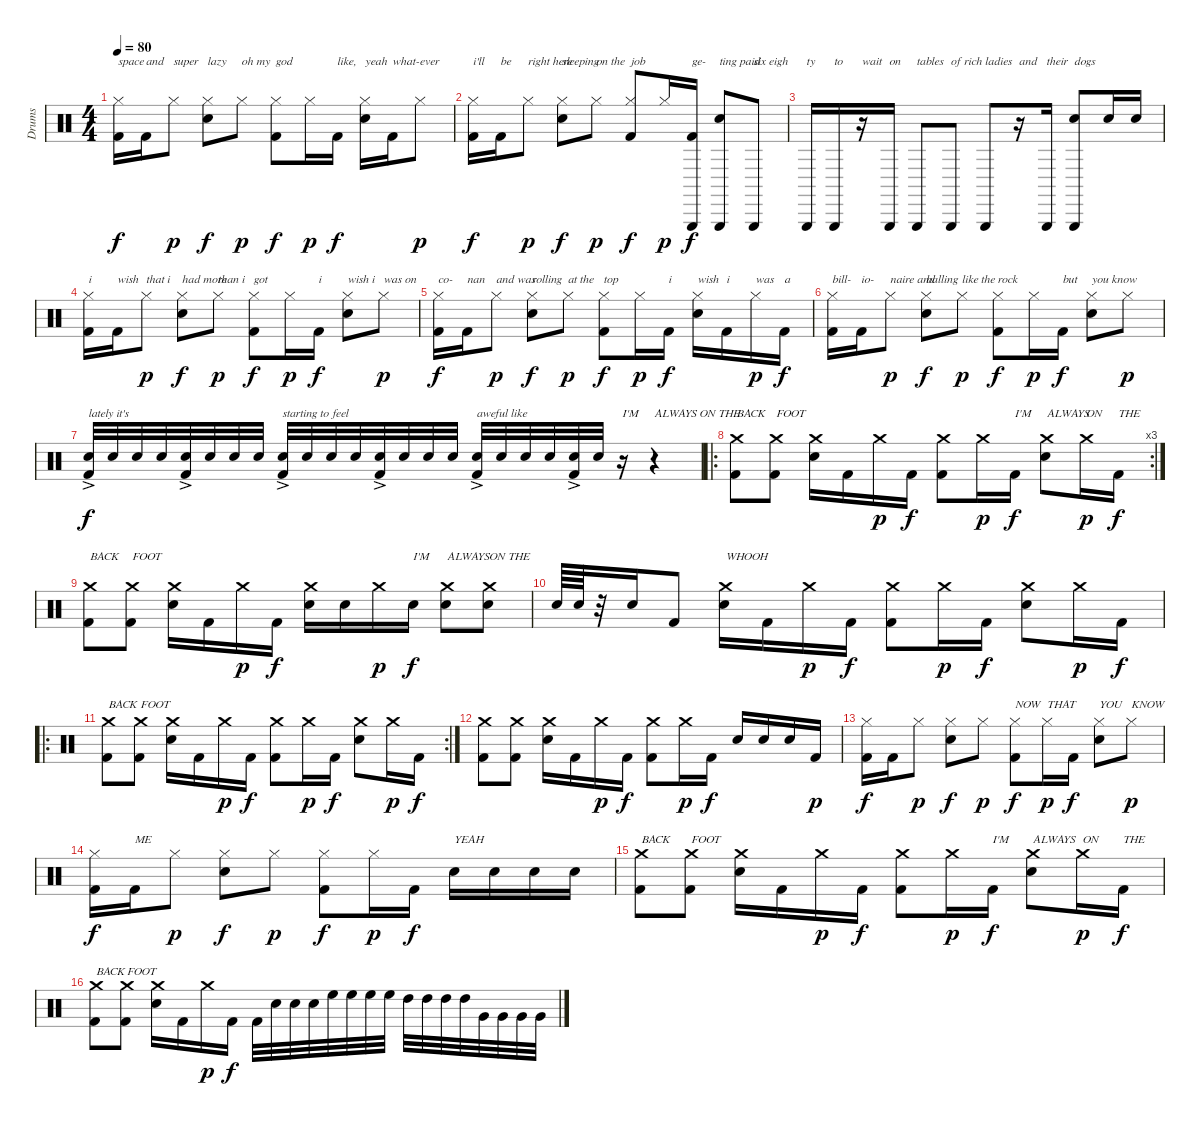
\track ("Drums" "Drums") {instrument percussion}
\staff {score}
\articulation defaults
\ts (4 4)
\tempo 80
\clef neutral
\ks c
("Hi-Hat (closed)" "Kick (hit) 2").16{txt "space" dy f} "Kick (hit) 2".16{txt "and"} "Hi-Hat (closed)".8{txt "super" dy p} ("Hi-Hat (closed)" "Snare (hit) 2").8{txt "lazy" dy f} "Hi-Hat (closed)".8{txt "oh my" dy p} ("Hi-Hat (closed)" "Kick (hit) 2").8{txt "god" dy f} "Hi-Hat (closed)".16{dy p} "Kick (hit) 2".16{txt "like," dy f} ("Hi-Hat (closed)" "Snare (hit) 2").16{txt "yeah"} "Kick (hit) 2".16{txt "what-"} "Hi-Hat (closed)".8{txt "ever" dy p} |
("Hi-Hat (closed)" "Kick (hit) 2").16{txt "i'll" dy f} "Kick (hit) 2".16{txt "be"} "Hi-Hat (closed)".8{txt "right here" dy p} ("Hi-Hat (closed)" "Snare (hit) 2").8{txt "sleeping" dy f} "Hi-Hat (closed)".8{txt "on the" dy p} ("Hi-Hat (closed)" "Kick (hit) 2").8{txt "job" dy f} "Hi-Hat (closed)".16{dy p} ("Triangle (hit)" "Kick (hit) 2").16{txt "ge-" dy f} ("Triangle (hit)" "Snare (hit) 2").8{txt "ting paid"} "Triangle (hit)".8{txt "six eigh"} |
"Triangle (hit)".16{txt "ty"} "Triangle (hit)".16{txt "to"} r.16{txt "wait"} "Triangle (hit)".16{txt "on"} "Triangle (hit)".8{txt "tables"} "Triangle (hit)".8{txt "of rich"} "Triangle (hit)".8{txt "ladies"} r.16{txt "and"} "Triangle (hit)".16{txt "their"} ("Triangle (hit)" "Snare (hit) 2").8{txt "dogs"} "Snare (hit) 2".16 "Snare (hit) 2".16 |
("Hi-Hat (closed)" "Kick (hit) 2").16{txt "i"} "Kick (hit) 2".16{txt "wish"} "Hi-Hat (closed)".8{txt "that i" dy p} ("Hi-Hat (closed)" "Snare (hit) 2").8{txt "had more" dy f} "Hi-Hat (closed)".8{txt "than i" dy p} ("Hi-Hat (closed)" "Kick (hit) 2").8{txt "got" dy f} "Hi-Hat (closed)".16{dy p} "Kick (hit) 2".16{txt "i" dy f} ("Hi-Hat (closed)" "Snare (hit) 2").8{txt "wish i"} "Hi-Hat (closed)".8{txt "was on" dy p} |
("Hi-Hat (closed)" "Kick (hit) 2").16{txt "co-" dy f} "Kick (hit) 2".16{txt "nan"} "Hi-Hat (closed)".8{txt "and was" dy p} ("Hi-Hat (closed)" "Snare (hit) 2").8{txt "rolling" dy f} "Hi-Hat (closed)".8{txt "at the" dy p} ("Hi-Hat (closed)" "Kick (hit) 2").8{txt "top" dy f} "Hi-Hat (closed)".16{dy p} "Kick (hit) 2".16{txt "i" dy f} ("Hi-Hat (closed)" "Snare (hit) 2").16{txt "wish"} "Kick (hit) 2".16{txt "i"} "Hi-Hat (closed)".16{txt "was" dy p} "Kick (hit) 2".16{txt "a" dy f} |
("Hi-Hat (closed)" "Kick (hit) 2").16{txt "bill-"} "Kick (hit) 2".16{txt "io-"} "Hi-Hat (closed)".8{txt "naire and" dy p} ("Hi-Hat (closed)" "Snare (hit) 2").8{txt "balling" dy f} "Hi-Hat (closed)".8{txt "like the" dy p} ("Hi-Hat (closed)" "Kick (hit) 2").8{txt "rock" dy f} "Hi-Hat (closed)".16{dy p} "Kick (hit) 2".16{txt "but" dy f} ("Hi-Hat (closed)" "Snare (hit) 2").8{txt "you know"} "Hi-Hat (closed)".8{dy p} |
("Snare (hit) 2"{ac} "Kick (hit) 2").32{txt "lately it's" dy f} "Snare (hit) 2".32 "Snare (hit) 2".32 "Snare (hit) 2".32 ("Snare (hit) 2"{ac} "Kick (hit) 2").32 "Snare (hit) 2".32 "Snare (hit) 2".32 "Snare (hit) 2".32 ("Snare (hit) 2"{ac} "Kick (hit) 2").32{txt "starting to feel"} "Snare (hit) 2".32 "Snare (hit) 2".32 "Snare (hit) 2".32 ("Snare (hit) 2"{ac} "Kick (hit) 2").32 "Snare (hit) 2".32 "Snare (hit) 2".32 "Snare (hit) 2".32 ("Snare (hit) 2"{ac} "Kick (hit) 2").32{txt "aweful like"} "Snare (hit) 2".32 "Snare (hit) 2".32 "Snare (hit) 2".32 ("Snare (hit) 2"{ac} "Kick (hit) 2").32 "Snare (hit) 2".32 r.16{txt "I'M"} r.4{txt "ALWAYS ON THE"} |
\ro
\rc 3
("Crash medium (hit)" "Kick (hit) 2").8{txt "BACK"} ("Crash medium (hit)" "Kick (hit) 2").8{txt "FOOT"} ("Crash medium (hit)" "Snare (hit) 2").16 "Kick (hit) 2".16 "Crash medium (hit)".16{dy p} "Kick (hit) 2".16{dy f} ("Crash medium (hit)" "Kick (hit) 2").8 "Crash medium (hit)".16{dy p} "Kick (hit) 2".16{txt "I'M" dy f} ("Crash medium (hit)" "Snare (hit) 2").8{txt "ALWAYS"} "Crash medium (hit)".16{txt "ON" dy p} "Kick (hit) 2".16{txt "THE" dy f} |
("Crash medium (hit)" "Kick (hit) 2").8{txt "BACK"} ("Crash medium (hit)" "Kick (hit) 2").8{txt "FOOT"} ("Crash medium (hit)" "Snare (hit) 2").16 "Kick (hit) 2".16 "Crash medium (hit)".16{dy p} "Kick (hit) 2".16{dy f} ("Crash medium (hit)" "Snare (hit) 2").16 "Snare (hit) 2".16 "Crash medium (hit)".16{dy p} "Snare (hit) 2".16{txt "I'M" dy f} ("Crash medium (hit)" "Snare (hit) 2").8{txt "ALWAYS"} ("Crash medium (hit)" "Snare (hit) 2").8{txt "ON THE"} |
"Snare (hit) 2".64 "Snare (hit) 2".64 r.32 "Snare (hit) 2".16 "Kick (hit) 2".8 ("Crash medium (hit)" "Snare (hit) 2").16{txt "WHOOH"} "Kick (hit) 2".16 "Crash medium (hit)".16{dy p} "Kick (hit) 2".16{dy f} ("Crash medium (hit)" "Kick (hit) 2").8 "Crash medium (hit)".16{dy p} "Kick (hit) 2".16{dy f} ("Crash medium (hit)" "Snare (hit) 2").8 "Crash medium (hit)".16{dy p} "Kick (hit) 2".16{dy f} |
\ro
\rc 2
("Crash medium (hit)" "Kick (hit) 2").8{txt "BACK"} ("Crash medium (hit)" "Kick (hit) 2").8{txt "FOOT"} ("Crash medium (hit)" "Snare (hit) 2").16 "Kick (hit) 2".16 "Crash medium (hit)".16{dy p} "Kick (hit) 2".16{dy f} ("Crash medium (hit)" "Kick (hit) 2").8 "Crash medium (hit)".16{dy p} "Kick (hit) 2".16{dy f} ("Crash medium (hit)" "Snare (hit) 2").8 "Crash medium (hit)".16{dy p} "Kick (hit) 2".16{dy f} |
("Crash medium (hit)" "Kick (hit) 2").8 ("Crash medium (hit)" "Kick (hit) 2").8 ("Crash medium (hit)" "Snare (hit) 2").16 "Kick (hit) 2".16 "Crash medium (hit)".16{dy p} "Kick (hit) 2".16{dy f} ("Crash medium (hit)" "Kick (hit) 2").8 "Crash medium (hit)".16{dy p} "Kick (hit) 2".16{dy f} "Snare (hit) 2".16 "Snare (hit) 2".16 "Snare (hit) 2".16 "Kick (hit) 2".16{dy p} |
("Hi-Hat (closed)" "Kick (hit) 2").16{dy f} "Kick (hit) 2".16 "Hi-Hat (closed)".8{dy p} ("Hi-Hat (closed)" "Snare (hit) 2").8{dy f} "Hi-Hat (closed)".8{dy p} ("Hi-Hat (closed)" "Kick (hit) 2").8{txt "NOW" dy f} "Hi-Hat (closed)".16{txt "THAT" dy p} "Kick (hit) 2".16{dy f} ("Hi-Hat (closed)" "Snare (hit) 2").8{txt "YOU"} "Hi-Hat (closed)".8{txt "KNOW" dy p} |
("Hi-Hat (closed)" "Kick (hit) 2").16{dy f} "Kick (hit) 2".16{txt "ME"} "Hi-Hat (closed)".8{dy p} ("Hi-Hat (closed)" "Snare (hit) 2").8{dy f} "Hi-Hat (closed)".8{dy p} ("Hi-Hat (closed)" "Kick (hit) 2").8{dy f} "Hi-Hat (closed)".16{dy p} "Kick (hit) 2".16{dy f} "Snare (hit) 2".16{txt "YEAH"} "Snare (hit) 2".16 "Snare (hit) 2".16 "Snare (hit) 2".16 |
("Crash medium (hit)" "Kick (hit) 2").8{txt "BACK"} ("Crash medium (hit)" "Kick (hit) 2").8{txt "FOOT"} ("Crash medium (hit)" "Snare (hit) 2").16 "Kick (hit) 2".16 "Crash medium (hit)".16{dy p} "Kick (hit) 2".16{dy f} ("Crash medium (hit)" "Kick (hit) 2").8 "Crash medium (hit)".16{dy p} "Kick (hit) 2".16{txt "I'M" dy f} ("Crash medium (hit)" "Snare (hit) 2").8{txt "ALWAYS"} "Crash medium (hit)".16{txt "ON" dy p} "Kick (hit) 2".16{txt "THE" dy f} |
("Crash medium (hit)" "Kick (hit) 2").8{txt "BACK"} ("Crash medium (hit)" "Kick (hit) 2").8{txt "FOOT"} ("Crash medium (hit)" "Snare (hit) 2").16 "Kick (hit) 2".16 "Crash medium (hit)".16{dy p} "Kick (hit) 2".16{dy f} "Kick (hit) 2".32 "Snare (hit) 2".32 "Snare (hit) 2".32 "Snare (hit) 2".32 "High Floor Tom (hit)".32 "High Floor Tom (hit)".32 "High Floor Tom (hit)".32 "High Floor Tom (hit)".32 "High Tom (hit)".32 "High Tom (hit)".32 "High Tom (hit)".32 "High Tom (hit)".32 "Very Low Tom (hit)".32 "Very Low Tom (hit)".32 "Very Low Tom (hit)".32 "Very Low Tom (hit)".32
